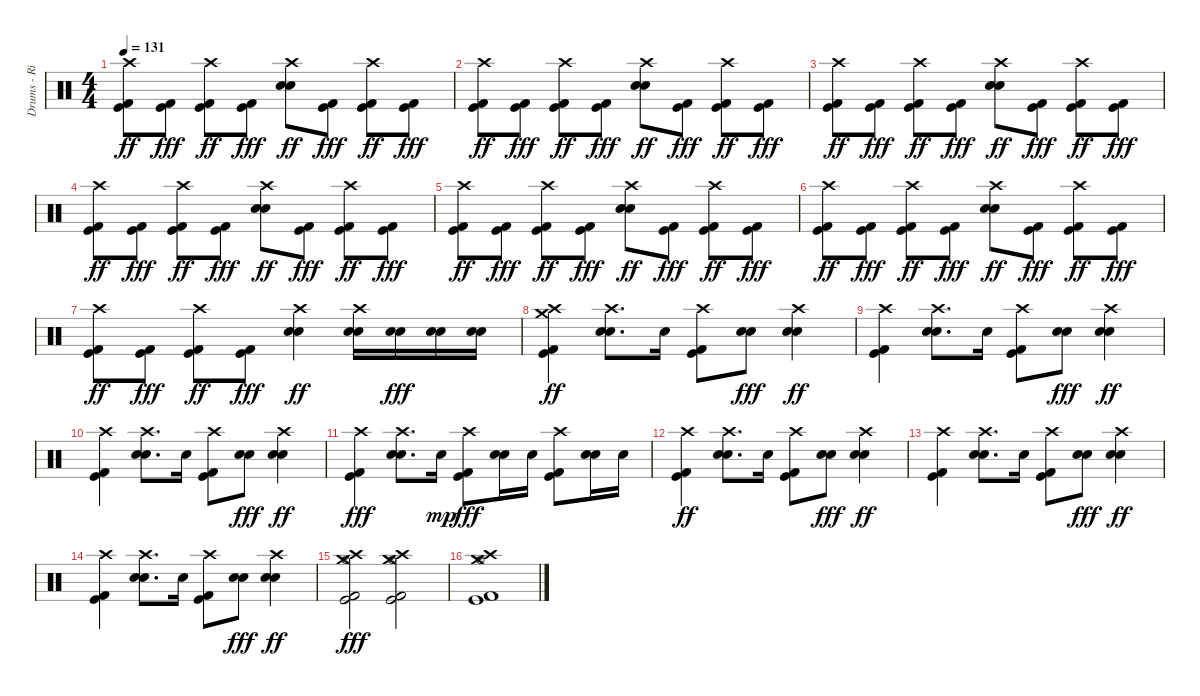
\track ("Drums - Rian" "Drums - Ri") {instrument percussion}
\staff
\articulation defaults
\ts (4 4)
\tempo 131
\clef neutral
\ks c
("Kick (hit) 2" "Kick (hit)" "Crash high (hit)").8{dy ff} ("Kick (hit) 2" "Kick (hit)").8{dy fff} ("Kick (hit) 2" "Kick (hit)" "Crash high (hit)").8{dy ff} ("Kick (hit) 2" "Kick (hit)").8{dy fff} ("Electric Snare (hit)" "Electric Snare (hit)" "Crash high (hit)").8{dy ff} ("Kick (hit) 2" "Kick (hit)").8{dy fff} ("Kick (hit) 2" "Kick (hit)" "Crash high (hit)").8{dy ff} ("Kick (hit) 2" "Kick (hit)").8{dy fff} |
("Kick (hit) 2" "Kick (hit)" "Crash high (hit)").8{dy ff} ("Kick (hit) 2" "Kick (hit)").8{dy fff} ("Kick (hit) 2" "Kick (hit)" "Crash high (hit)").8{dy ff} ("Kick (hit) 2" "Kick (hit)").8{dy fff} ("Electric Snare (hit)" "Electric Snare (hit)" "Crash high (hit)").8{dy ff} ("Kick (hit) 2" "Kick (hit)").8{dy fff} ("Kick (hit) 2" "Kick (hit)" "Crash high (hit)").8{dy ff} ("Kick (hit) 2" "Kick (hit)").8{dy fff} |
("Kick (hit) 2" "Kick (hit)" "Crash high (hit)").8{dy ff} ("Kick (hit) 2" "Kick (hit)").8{dy fff} ("Kick (hit) 2" "Kick (hit)" "Crash high (hit)").8{dy ff} ("Kick (hit) 2" "Kick (hit)").8{dy fff} ("Electric Snare (hit)" "Electric Snare (hit)" "Crash high (hit)").8{dy ff} ("Kick (hit) 2" "Kick (hit)").8{dy fff} ("Kick (hit) 2" "Kick (hit)" "Crash high (hit)").8{dy ff} ("Kick (hit) 2" "Kick (hit)").8{dy fff} |
("Kick (hit) 2" "Kick (hit)" "Crash high (hit)").8{dy ff} ("Kick (hit) 2" "Kick (hit)").8{dy fff} ("Kick (hit) 2" "Kick (hit)" "Crash high (hit)").8{dy ff} ("Kick (hit) 2" "Kick (hit)").8{dy fff} ("Electric Snare (hit)" "Electric Snare (hit)" "Crash high (hit)").8{dy ff} ("Kick (hit) 2" "Kick (hit)").8{dy fff} ("Kick (hit) 2" "Kick (hit)" "Crash high (hit)").8{dy ff} ("Kick (hit) 2" "Kick (hit)").8{dy fff} |
("Kick (hit) 2" "Kick (hit)" "Crash high (hit)").8{dy ff} ("Kick (hit) 2" "Kick (hit)").8{dy fff} ("Kick (hit) 2" "Kick (hit)" "Crash high (hit)").8{dy ff} ("Kick (hit) 2" "Kick (hit)").8{dy fff} ("Electric Snare (hit)" "Electric Snare (hit)" "Crash high (hit)").8{dy ff} ("Kick (hit) 2" "Kick (hit)").8{dy fff} ("Kick (hit) 2" "Kick (hit)" "Crash high (hit)").8{dy ff} ("Kick (hit) 2" "Kick (hit)").8{dy fff} |
("Kick (hit) 2" "Kick (hit)" "Crash high (hit)").8{dy ff} ("Kick (hit) 2" "Kick (hit)").8{dy fff} ("Kick (hit) 2" "Kick (hit)" "Crash high (hit)").8{dy ff} ("Kick (hit) 2" "Kick (hit)").8{dy fff} ("Electric Snare (hit)" "Electric Snare (hit)" "Crash high (hit)").8{dy ff} ("Kick (hit) 2" "Kick (hit)").8{dy fff} ("Kick (hit) 2" "Kick (hit)" "Crash high (hit)").8{dy ff} ("Kick (hit) 2" "Kick (hit)").8{dy fff} |
("Kick (hit) 2" "Kick (hit)" "Crash high (hit)").8{dy ff} ("Kick (hit) 2" "Kick (hit)").8{dy fff} ("Kick (hit) 2" "Kick (hit)" "Crash high (hit)").8{dy ff} ("Kick (hit) 2" "Kick (hit)").8{dy fff} ("Electric Snare (hit)" "Electric Snare (hit)" "Crash high (hit)").4{dy ff} ("Electric Snare (hit)" "Electric Snare (hit)" "Crash high (hit)").16 ("Electric Snare (hit)" "Electric Snare (hit)").16{dy fff} ("Electric Snare (hit)" "Electric Snare (hit)").16 ("Electric Snare (hit)" "Electric Snare (hit)").16 |
("Kick (hit) 2" "Kick (hit)" "Crash high (hit)" "Crash medium (hit)").4{dy ff} ("Electric Snare (hit)" "Electric Snare (hit)" "Crash high (hit)").8{d} "Electric Snare (hit)".16 ("Kick (hit) 2" "Kick (hit)" "Crash high (hit)").8 ("Electric Snare (hit)" "Electric Snare (hit)").8{dy fff} ("Electric Snare (hit)" "Electric Snare (hit)" "Crash high (hit)").4{dy ff} |
("Kick (hit) 2" "Kick (hit)" "Crash high (hit)").4 ("Electric Snare (hit)" "Electric Snare (hit)" "Crash high (hit)").8{d} "Electric Snare (hit)".16 ("Kick (hit) 2" "Kick (hit)" "Crash high (hit)").8 ("Electric Snare (hit)" "Electric Snare (hit)").8{dy fff} ("Electric Snare (hit)" "Electric Snare (hit)" "Crash high (hit)").4{dy ff} |
("Kick (hit) 2" "Kick (hit)" "Crash high (hit)").4 ("Electric Snare (hit)" "Electric Snare (hit)" "Crash high (hit)").8{d} "Electric Snare (hit)".16 ("Kick (hit) 2" "Kick (hit)" "Crash high (hit)").8 ("Electric Snare (hit)" "Electric Snare (hit)").8{dy fff} ("Electric Snare (hit)" "Electric Snare (hit)" "Crash high (hit)").4{dy ff} |
("Kick (hit) 2" "Kick (hit)" "Crash high (hit)").4{dy fff} ("Electric Snare (hit)" "Electric Snare (hit)" "Crash high (hit)").8{d} "Electric Snare (hit)".16{dy mp} ("Kick (hit) 2" "Kick (hit)" "Crash high (hit)").8{dy fff} ("Electric Snare (hit)" "Electric Snare (hit)").16 "Electric Snare (hit)".16 ("Kick (hit) 2" "Kick (hit)" "Crash high (hit)").8 ("Electric Snare (hit)" "Electric Snare (hit)").16 "Electric Snare (hit)".16 |
("Kick (hit) 2" "Kick (hit)" "Crash high (hit)").4{dy ff} ("Electric Snare (hit)" "Electric Snare (hit)" "Crash high (hit)").8{d} "Electric Snare (hit)".16 ("Kick (hit) 2" "Kick (hit)" "Crash high (hit)").8 ("Electric Snare (hit)" "Electric Snare (hit)").8{dy fff} ("Electric Snare (hit)" "Electric Snare (hit)" "Crash high (hit)").4{dy ff} |
("Kick (hit) 2" "Kick (hit)" "Crash high (hit)").4 ("Electric Snare (hit)" "Electric Snare (hit)" "Crash high (hit)").8{d} "Electric Snare (hit)".16 ("Kick (hit) 2" "Kick (hit)" "Crash high (hit)").8 ("Electric Snare (hit)" "Electric Snare (hit)").8{dy fff} ("Electric Snare (hit)" "Electric Snare (hit)" "Crash high (hit)").4{dy ff} |
("Kick (hit) 2" "Kick (hit)" "Crash high (hit)").4 ("Electric Snare (hit)" "Electric Snare (hit)" "Crash high (hit)").8{d} "Electric Snare (hit)".16 ("Kick (hit) 2" "Kick (hit)" "Crash high (hit)").8 ("Electric Snare (hit)" "Electric Snare (hit)").8{dy fff} ("Electric Snare (hit)" "Electric Snare (hit)" "Crash high (hit)").4{dy ff} |
("Kick (hit) 2" "Kick (hit)" "Hi-Hat (open)" "Crash high (hit)" "Crash medium (hit)").2{dy fff} ("Kick (hit) 2" "Kick (hit)" "Hi-Hat (open)" "Crash high (hit)" "Crash medium (hit)").2 |
("Kick (hit) 2" "Kick (hit)" "Hi-Hat (open)" "Crash high (hit)" "Crash medium (hit)").1
